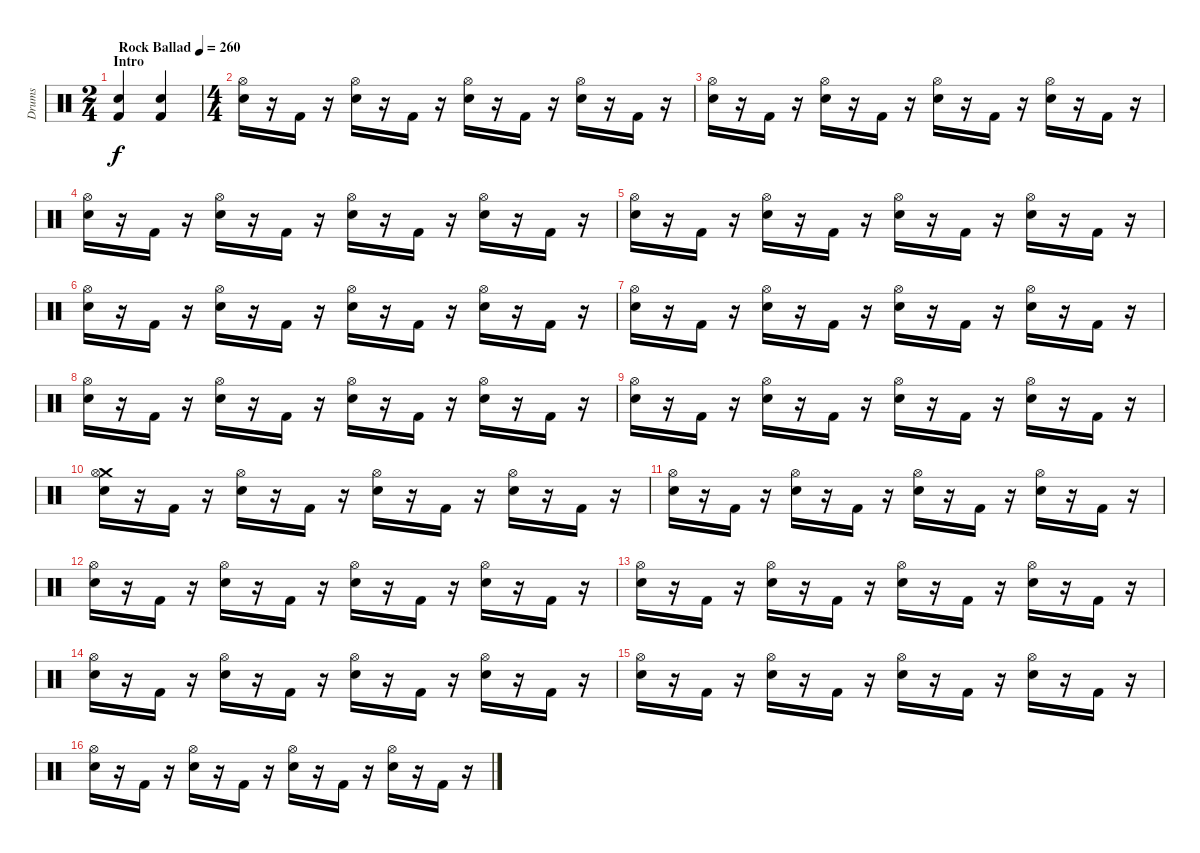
\track ("Drums" "Drums") {instrument percussion}
\staff {score}
\articulation defaults
\ts (2 4)
\section ("" "Intro")
\tempo (260 "Rock Ballad")
\clef neutral
\ks c
("Electric Snare (hit)" "Kick (hit) 2").4{dy f} ("Electric Snare (hit)" "Kick (hit) 2").4 |
\ts (4 4)
("Snare (hit) 2" "Hi-Hat (open)").16 r.16 "Kick (hit) 2".16 r.16 ("Snare (hit) 2" "Hi-Hat (open)").16 r.16 "Kick (hit) 2".16 r.16 ("Snare (hit) 2" "Hi-Hat (open)").16 r.16 "Kick (hit) 2".16 r.16 ("Snare (hit) 2" "Hi-Hat (open)").16 r.16 "Kick (hit) 2".16 r.16 |
("Snare (hit) 2" "Hi-Hat (open)").16 r.16 "Kick (hit) 2".16 r.16 ("Snare (hit) 2" "Hi-Hat (open)").16 r.16 "Kick (hit) 2".16 r.16 ("Snare (hit) 2" "Hi-Hat (open)").16 r.16 "Kick (hit) 2".16 r.16 ("Snare (hit) 2" "Hi-Hat (open)").16 r.16 "Kick (hit) 2".16 r.16 |
("Snare (hit) 2" "Hi-Hat (open)").16 r.16 "Kick (hit) 2".16 r.16 ("Snare (hit) 2" "Hi-Hat (open)").16 r.16 "Kick (hit) 2".16 r.16 ("Snare (hit) 2" "Hi-Hat (open)").16 r.16 "Kick (hit) 2".16 r.16 ("Snare (hit) 2" "Hi-Hat (open)").16 r.16 "Kick (hit) 2".16 r.16 |
("Snare (hit) 2" "Hi-Hat (open)").16 r.16 "Kick (hit) 2".16 r.16 ("Snare (hit) 2" "Hi-Hat (open)").16 r.16 "Kick (hit) 2".16 r.16 ("Snare (hit) 2" "Hi-Hat (open)").16 r.16 "Kick (hit) 2".16 r.16 ("Snare (hit) 2" "Hi-Hat (open)").16 r.16 "Kick (hit) 2".16 r.16 |
("Snare (hit) 2" "Hi-Hat (open)").16 r.16 "Kick (hit) 2".16 r.16 ("Snare (hit) 2" "Hi-Hat (open)").16 r.16 "Kick (hit) 2".16 r.16 ("Snare (hit) 2" "Hi-Hat (open)").16 r.16 "Kick (hit) 2".16 r.16 ("Snare (hit) 2" "Hi-Hat (open)").16 r.16 "Kick (hit) 2".16 r.16 |
("Snare (hit) 2" "Hi-Hat (open)").16 r.16 "Kick (hit) 2".16 r.16 ("Snare (hit) 2" "Hi-Hat (open)").16 r.16 "Kick (hit) 2".16 r.16 ("Snare (hit) 2" "Hi-Hat (open)").16 r.16 "Kick (hit) 2".16 r.16 ("Snare (hit) 2" "Hi-Hat (open)").16 r.16 "Kick (hit) 2".16 r.16 |
("Snare (hit) 2" "Hi-Hat (open)").16 r.16 "Kick (hit) 2".16 r.16 ("Snare (hit) 2" "Hi-Hat (open)").16 r.16 "Kick (hit) 2".16 r.16 ("Snare (hit) 2" "Hi-Hat (open)").16 r.16 "Kick (hit) 2".16 r.16 ("Snare (hit) 2" "Hi-Hat (open)").16 r.16 "Kick (hit) 2".16 r.16 |
("Snare (hit) 2" "Hi-Hat (open)").16 r.16 "Kick (hit) 2".16 r.16 ("Snare (hit) 2" "Hi-Hat (open)").16 r.16 "Kick (hit) 2".16 r.16 ("Snare (hit) 2" "Hi-Hat (open)").16 r.16 "Kick (hit) 2".16 r.16 ("Snare (hit) 2" "Hi-Hat (open)").16 r.16 "Kick (hit) 2".16 r.16 |
("Crash medium (hit)" "Snare (hit) 2" "Hi-Hat (open)").16 r.16 "Kick (hit) 2".16 r.16 ("Snare (hit) 2" "Hi-Hat (open)").16 r.16 "Kick (hit) 2".16 r.16 ("Snare (hit) 2" "Hi-Hat (open)").16 r.16 "Kick (hit) 2".16 r.16 ("Snare (hit) 2" "Hi-Hat (open)").16 r.16 "Kick (hit) 2".16 r.16 |
("Snare (hit) 2" "Hi-Hat (open)").16 r.16 "Kick (hit) 2".16 r.16 ("Snare (hit) 2" "Hi-Hat (open)").16 r.16 "Kick (hit) 2".16 r.16 ("Snare (hit) 2" "Hi-Hat (open)").16 r.16 "Kick (hit) 2".16 r.16 ("Snare (hit) 2" "Hi-Hat (open)").16 r.16 "Kick (hit) 2".16 r.16 |
("Snare (hit) 2" "Hi-Hat (open)").16 r.16 "Kick (hit) 2".16 r.16 ("Snare (hit) 2" "Hi-Hat (open)").16 r.16 "Kick (hit) 2".16 r.16 ("Snare (hit) 2" "Hi-Hat (open)").16 r.16 "Kick (hit) 2".16 r.16 ("Snare (hit) 2" "Hi-Hat (open)").16 r.16 "Kick (hit) 2".16 r.16 |
("Snare (hit) 2" "Hi-Hat (open)").16 r.16 "Kick (hit) 2".16 r.16 ("Snare (hit) 2" "Hi-Hat (open)").16 r.16 "Kick (hit) 2".16 r.16 ("Snare (hit) 2" "Hi-Hat (open)").16 r.16 "Kick (hit) 2".16 r.16 ("Snare (hit) 2" "Hi-Hat (open)").16 r.16 "Kick (hit) 2".16 r.16 |
("Snare (hit) 2" "Hi-Hat (open)").16 r.16 "Kick (hit) 2".16 r.16 ("Snare (hit) 2" "Hi-Hat (open)").16 r.16 "Kick (hit) 2".16 r.16 ("Snare (hit) 2" "Hi-Hat (open)").16 r.16 "Kick (hit) 2".16 r.16 ("Snare (hit) 2" "Hi-Hat (open)").16 r.16 "Kick (hit) 2".16 r.16 |
("Snare (hit) 2" "Hi-Hat (open)").16 r.16 "Kick (hit) 2".16 r.16 ("Snare (hit) 2" "Hi-Hat (open)").16 r.16 "Kick (hit) 2".16 r.16 ("Snare (hit) 2" "Hi-Hat (open)").16 r.16 "Kick (hit) 2".16 r.16 ("Snare (hit) 2" "Hi-Hat (open)").16 r.16 "Kick (hit) 2".16 r.16 |
("Snare (hit) 2" "Hi-Hat (open)").16 r.16 "Kick (hit) 2".16 r.16 ("Snare (hit) 2" "Hi-Hat (open)").16 r.16 "Kick (hit) 2".16 r.16 ("Snare (hit) 2" "Hi-Hat (open)").16 r.16 "Kick (hit) 2".16 r.16 ("Snare (hit) 2" "Hi-Hat (open)").16 r.16 "Kick (hit) 2".16 r.16
